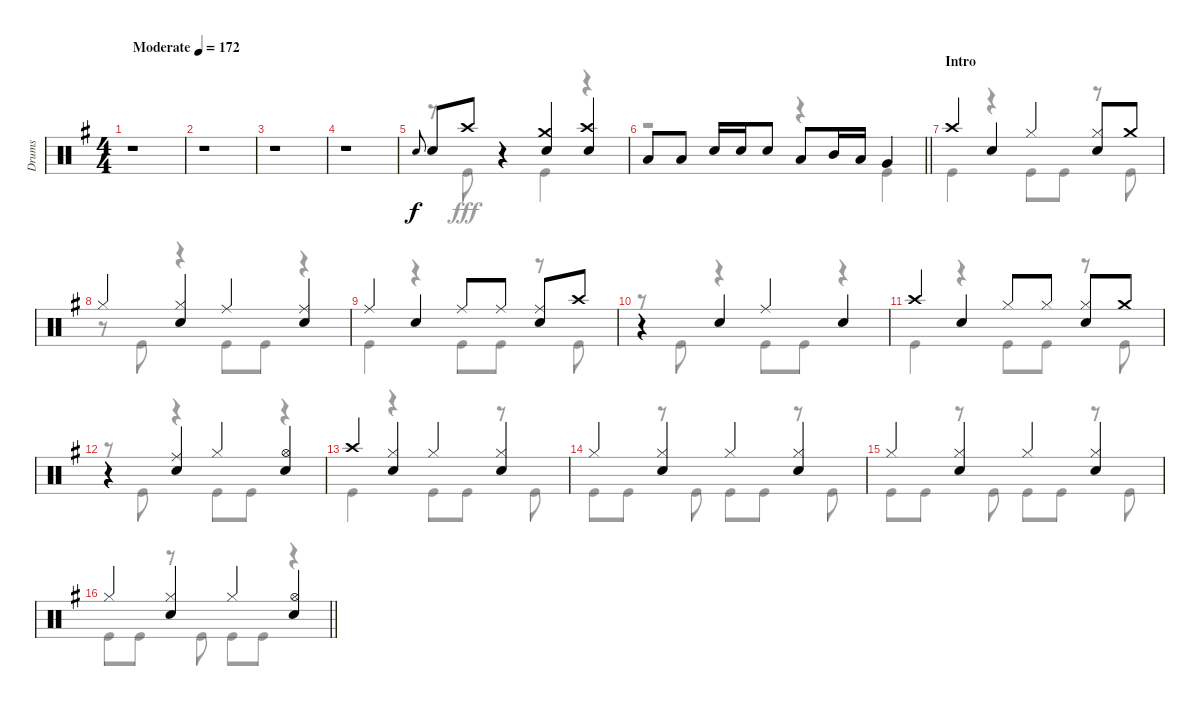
\track ("Drums" "Drums") {instrument percussion}
\staff {score}
\articulation defaults
\voice
\ts (4 4)
\tempo (172 "Moderate")
\clef neutral
\ks g
r.1{dy f} |
r.1 |
r.1 |
r.1 |
"Snare (hit) 2".8{gr onbeat} "Snare (hit) 2".8 "Crash high (hit)".8 r.4 ("Crash medium (hit)" "Snare (hit) 2").4 ("Crash high (hit)" "Snare (hit) 2").4 |
\barLineRight lightlight "Low Tom (hit)".8 "Low Tom (hit)".8 "Snare (hit) 2".16 "Snare (hit) 2".16 "Snare (hit) 2".8 "Low Tom (hit)".8 "Mid Tom (hit)".16 "Low Tom (hit)".16 "Very Low Tom (hit)".4
|
\section ("" "Intro")
"Crash high (hit)".4 "Snare (hit) 2".4 "Hi-Hat (closed)".4 ("Hi-Hat (closed)" "Snare (hit) 2").8 "Crash medium (hit)".8 |
"Hi-Hat (closed)".4 ("Hi-Hat (closed)" "Snare (hit) 2").4 "Ride (middle)".4 ("Ride (middle)" "Snare (hit) 2").4 |
"Ride (middle)".4 "Snare (hit) 2".4 "Ride (middle)".8 "Ride (middle)".8 ("Ride (middle)" "Snare (hit) 2").8 "Crash high (hit)".8 |
r.4 "Snare (hit) 2".4 "Ride (middle)".4 "Snare (hit) 2".4 |
"Crash high (hit)".4 "Snare (hit) 2".4 "Hi-Hat (closed)".8 "Hi-Hat (closed)".8 ("Hi-Hat (closed)" "Snare (hit) 2").8 "Crash medium (hit)".8 |
r.4 ("Ride (middle)" "Snare (hit) 2").4 "Hi-Hat (closed)".4 ("Hi-Hat (open)" "Snare (hit) 2").4 |
"Crash high (hit)".4 ("Hi-Hat (closed)" "Snare (hit) 2").4 "Hi-Hat (closed)".4 ("Hi-Hat (closed)" "Snare (hit) 2").4 |
"Hi-Hat (closed)".4 ("Hi-Hat (closed)" "Snare (hit) 2").4 "Hi-Hat (closed)".4 ("Hi-Hat (closed)" "Snare (hit) 2").4 |
"Hi-Hat (closed)".4 ("Hi-Hat (closed)" "Snare (hit) 2").4 "Hi-Hat (closed)".4 ("Hi-Hat (closed)" "Snare (hit) 2").4 |
\barLineRight lightlight "Hi-Hat (closed)".4
("Hi-Hat (closed)" "Snare (hit) 2").4 "Hi-Hat (closed)".4 ("Hi-Hat (open)" "Snare (hit) 2").4
\voice
\clef neutral
\ottava regular
\simile none
\ks g
r.1{dy fff} |
r.1 |
r.1 |
r.1 |
r.8 "Kick (hit)".8 r.4 "Kick (hit)".4 r.4 |
\barLineRight lightlight
r.2 r.4 "Kick (hit)".4 |
"Kick (hit)".4 r.4 "Kick (hit)".8 "Kick (hit)".8 r.8 "Kick (hit)".8 |
r.8 "Kick (hit)".8 r.4 "Kick (hit)".8 "Kick (hit)".8 r.4 |
"Kick (hit)".4 r.4 "Kick (hit)".8 "Kick (hit)".8 r.8 "Kick (hit)".8 |
r.8 "Kick (hit)".8 r.4 "Kick (hit)".8 "Kick (hit)".8 r.4 |
"Kick (hit)".4 r.4 "Kick (hit)".8 "Kick (hit)".8 r.8 "Kick (hit)".8 |
r.8 "Kick (hit)".8 r.4 "Kick (hit)".8 "Kick (hit)".8 r.4 |
"Kick (hit)".4 r.4 "Kick (hit)".8 "Kick (hit)".8 r.8 "Kick (hit)".8 |
"Kick (hit)".8 "Kick (hit)".8 r.8 "Kick (hit)".8 "Kick (hit)".8 "Kick (hit)".8 r.8 "Kick (hit)".8 |
"Kick (hit)".8 "Kick (hit)".8 r.8 "Kick (hit)".8 "Kick (hit)".8 "Kick (hit)".8 r.8 "Kick (hit)".8 |
\barLineRight lightlight "Kick (hit)".8 "Kick (hit)".8
r.8 "Kick (hit)".8 "Kick (hit)".8 "Kick (hit)".8 r.4
